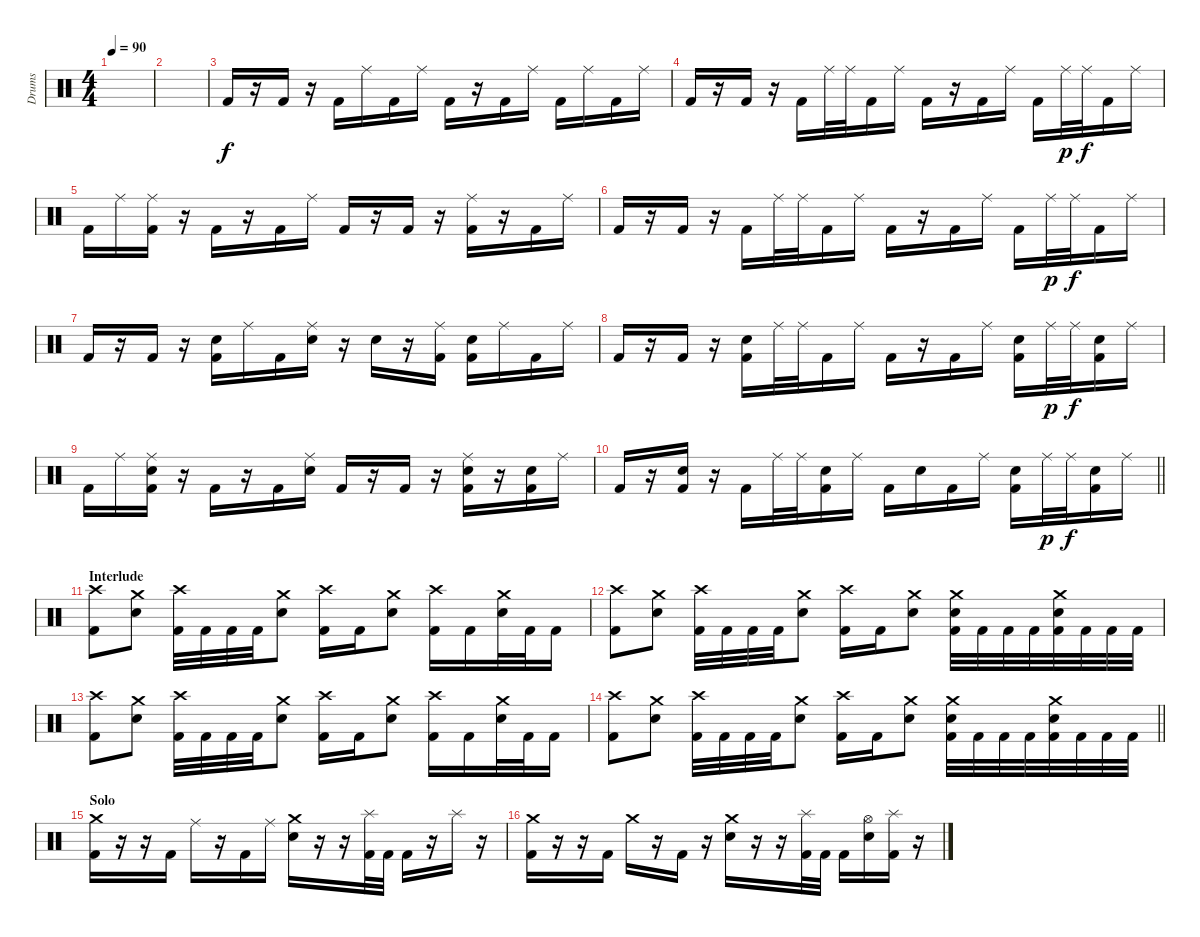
\track ("Drums" "Drums") {instrument percussion}
\staff {score}
\articulation defaults
\ts (4 4)
\tempo 90
\clef neutral
\ks c
|
|
"Kick (hit) 2".16 r.16 "Kick (hit) 2".16 r.16 "Kick (hit) 2".16 "Ride (middle)".16 "Kick (hit) 2".16 "Ride (middle)".16 "Kick (hit) 2".16 r.16 "Kick (hit) 2".16 "Ride (middle)".16 "Kick (hit) 2".16 "Ride (middle)".16 "Kick (hit) 2".16 "Ride (middle)".16 |
"Kick (hit) 2".16 r.16 "Kick (hit) 2".16 r.16 "Kick (hit) 2".16 "Ride (middle)".32 "Ride (middle)".32 "Kick (hit) 2".16 "Ride (middle)".16 "Kick (hit) 2".16 r.16 "Kick (hit) 2".16 "Ride (middle)".16 "Kick (hit) 2".16 "Ride (middle)".32{dy p} "Ride (middle)".32{dy f} "Kick (hit) 2".16 "Ride (middle)".16 |
"Kick (hit) 2".16 "Ride (middle)".16 ("Ride (middle)" "Kick (hit) 2").16 r.16 "Kick (hit) 2".16 r.16 "Kick (hit) 2".16 "Ride (middle)".16 "Kick (hit) 2".16 r.16 "Kick (hit) 2".16 r.16 ("Ride (middle)" "Kick (hit) 2").16 r.16 "Kick (hit) 2".16 "Ride (middle)".16 |
"Kick (hit) 2".16 r.16 "Kick (hit) 2".16 r.16 "Kick (hit) 2".16 "Ride (middle)".32 "Ride (middle)".32 "Kick (hit) 2".16 "Ride (middle)".16 "Kick (hit) 2".16 r.16 "Kick (hit) 2".16 "Ride (middle)".16 "Kick (hit) 2".16 "Ride (middle)".32{dy p} "Ride (middle)".32{dy f} "Kick (hit) 2".16 "Ride (middle)".16 |
"Kick (hit) 2".16 r.16 "Kick (hit) 2".16 r.16 ("Electric Snare (hit)" "Kick (hit) 2").16 "Ride (middle)".16 "Kick (hit) 2".16 ("Ride (middle)" "Electric Snare (hit)").16 r.16 "Electric Snare (hit)".16 r.16 ("Ride (middle)" "Kick (hit) 2").16 ("Electric Snare (hit)" "Kick (hit) 2").16 "Ride (middle)".16 "Kick (hit) 2".16 "Ride (middle)".16 |
"Kick (hit) 2".16 r.16 "Kick (hit) 2".16 r.16 ("Electric Snare (hit)" "Kick (hit) 2").16 "Ride (middle)".32 "Ride (middle)".32 "Kick (hit) 2".16 "Ride (middle)".16 "Kick (hit) 2".16 r.16 "Kick (hit) 2".16 "Ride (middle)".16 ("Electric Snare (hit)" "Kick (hit) 2").16 "Ride (middle)".32{dy p} "Ride (middle)".32{dy f} ("Electric Snare (hit)" "Kick (hit) 2").16 "Ride (middle)".16 |
"Kick (hit) 2".16 "Ride (middle)".16 ("Ride (middle)" "Electric Snare (hit)" "Kick (hit) 2").16 r.16 "Kick (hit) 2".16 r.16 "Kick (hit) 2".16 ("Ride (middle)" "Electric Snare (hit)").16 "Kick (hit) 2".16 r.16 "Kick (hit) 2".16 r.16 ("Ride (middle)" "Electric Snare (hit)" "Kick (hit) 2").16 r.16 ("Electric Snare (hit)" "Kick (hit) 2").16 "Ride (middle)".16 |
\barLineRight lightlight "Kick (hit) 2".16
r.16 ("Electric Snare (hit)" "Kick (hit) 2").16 r.16 "Kick (hit) 2".16 "Ride (middle)".32 "Ride (middle)".32 ("Electric Snare (hit)" "Kick (hit) 2").16 "Ride (middle)".16 "Kick (hit) 2".16 "Electric Snare (hit)".16 "Kick (hit) 2".16 "Ride (middle)".16 ("Electric Snare (hit)" "Kick (hit) 2").16 "Ride (middle)".32{dy p} "Ride (middle)".32{dy f} ("Electric Snare (hit)" "Kick (hit) 2").16 "Ride (middle)".16 |
\section ("" "Interlude")
("Crash high (hit)" "Kick (hit) 2").8 ("Crash medium (hit)" "Electric Snare (hit)").8 ("Crash high (hit)" "Kick (hit) 2").32 "Kick (hit) 2".32 "Kick (hit) 2".32 "Kick (hit) 2".32 ("Crash medium (hit)" "Electric Snare (hit)").8 ("Crash high (hit)" "Kick (hit) 2").16 "Kick (hit) 2".16 ("Crash medium (hit)" "Electric Snare (hit)").8 ("Crash high (hit)" "Kick (hit) 2").16 "Kick (hit) 2".16 ("Crash medium (hit)" "Electric Snare (hit)").32 "Kick (hit) 2".32 "Kick (hit) 2".16 |
("Crash high (hit)" "Kick (hit) 2").8 ("Crash medium (hit)" "Electric Snare (hit)").8 ("Crash high (hit)" "Kick (hit) 2").32 "Kick (hit) 2".32 "Kick (hit) 2".32 "Kick (hit) 2".32 ("Crash medium (hit)" "Electric Snare (hit)").8 ("Crash high (hit)" "Kick (hit) 2").16 "Kick (hit) 2".16 ("Crash medium (hit)" "Electric Snare (hit)").8 ("Crash medium (hit)" "Electric Snare (hit)" "Kick (hit) 2").32 "Kick (hit) 2".32 "Kick (hit) 2".32 "Kick (hit) 2".32 ("Crash medium (hit)" "Electric Snare (hit)" "Kick (hit) 2").32 "Kick (hit) 2".32 "Kick (hit) 2".32 "Kick (hit) 2".32 |
("Crash high (hit)" "Kick (hit) 2").8 ("Crash medium (hit)" "Electric Snare (hit)").8 ("Crash high (hit)" "Kick (hit) 2").32 "Kick (hit) 2".32 "Kick (hit) 2".32 "Kick (hit) 2".32 ("Crash medium (hit)" "Electric Snare (hit)").8 ("Crash high (hit)" "Kick (hit) 2").16 "Kick (hit) 2".16 ("Crash medium (hit)" "Electric Snare (hit)").8 ("Crash high (hit)" "Kick (hit) 2").16 "Kick (hit) 2".16 ("Crash medium (hit)" "Electric Snare (hit)").32 "Kick (hit) 2".32 "Kick (hit) 2".16 |
\barLineRight lightlight
("Crash high (hit)" "Kick (hit) 2").8 ("Crash medium (hit)" "Electric Snare (hit)").8 ("Crash high (hit)" "Kick (hit) 2").32 "Kick (hit) 2".32 "Kick (hit) 2".32 "Kick (hit) 2".32 ("Crash medium (hit)" "Electric Snare (hit)").8 ("Crash high (hit)" "Kick (hit) 2").16 "Kick (hit) 2".16 ("Crash medium (hit)" "Electric Snare (hit)").8 ("Crash medium (hit)" "Electric Snare (hit)" "Kick (hit) 2").32 "Kick (hit) 2".32 "Kick (hit) 2".32 "Kick (hit) 2".32 ("Crash medium (hit)" "Electric Snare (hit)" "Kick (hit) 2").32 "Kick (hit) 2".32 "Kick (hit) 2".32 "Kick (hit) 2".32 |
\section ("" "Solo")
("Crash medium (hit)" "Kick (hit) 2").16 r.16 r.16 "Kick (hit) 2".16 "Ride (middle)".16 r.16 "Kick (hit) 2".16 "Ride (middle)".16 ("Crash medium (hit)" "Electric Snare (hit)").16 r.16 r.16 ("Splash (hit)" "Kick (hit) 2").32 "Kick (hit) 2".32 "Kick (hit) 2".16 r.16 "Splash (hit)".16 r.16 |
("Crash medium (hit)" "Kick (hit) 2").16 r.16 r.16 "Kick (hit) 2".16 "Crash medium (hit)".16 r.16 "Kick (hit) 2".16 r.16 ("Crash medium (hit)" "Electric Snare (hit)").16 r.16 r.16 ("Splash (hit)" "Kick (hit) 2").32 "Kick (hit) 2".32 "Kick (hit) 2".16 ("Hi-Hat (open)" "Electric Snare (hit)").16 ("Splash (hit)" "Kick (hit) 2").16 r.16
